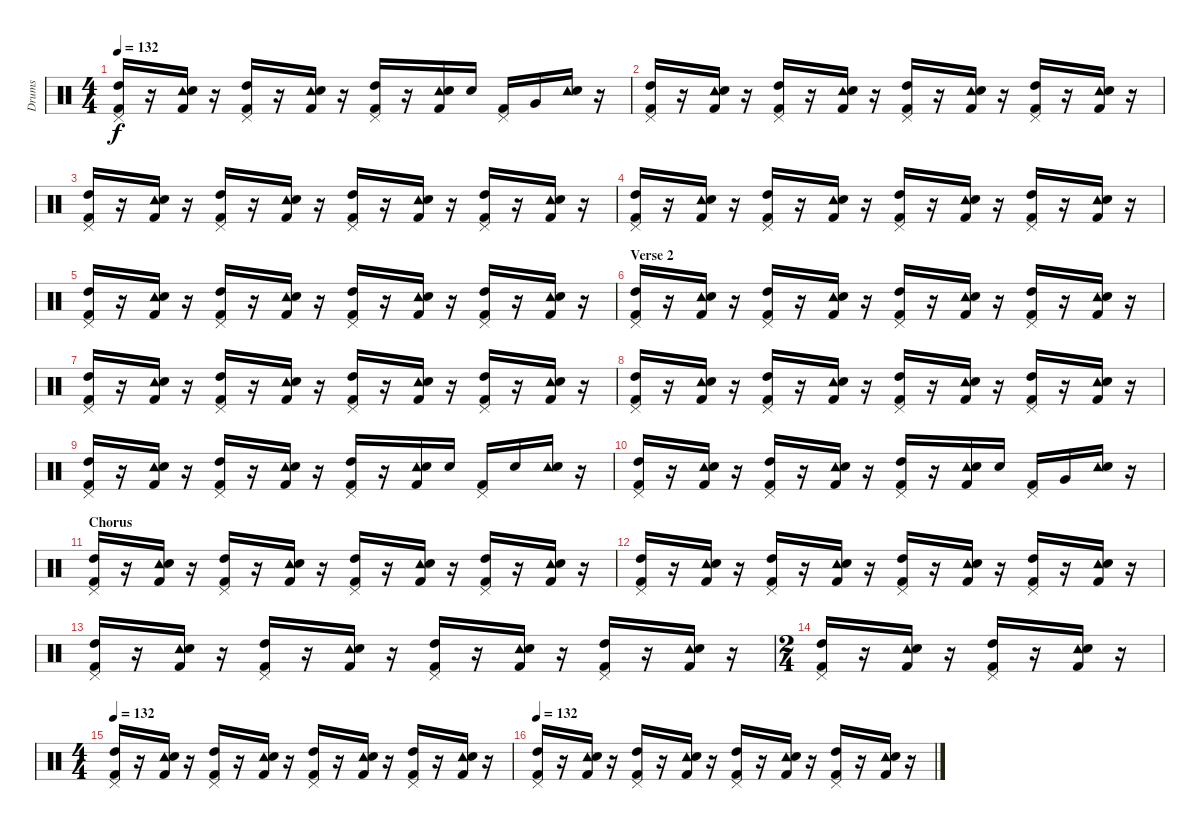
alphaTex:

\track ("Drums" "Drums") {instrument percussion}
\staff {score}
\articulation defaults
\ts (4 4)
\tempo 132
\clef neutral
\ks c
("Pedal Hi-Hat (hit)" "Kick (hit) 2" "High Tom (hit)").16{dy f} r.16 ("Tambourine (hit)" "Kick (hit) 2" "Snare (hit) 2").16 r.16 ("Pedal Hi-Hat (hit)" "Kick (hit) 2" "High Tom (hit)").16 r.16 ("Tambourine (hit)" "Kick (hit) 2" "Snare (hit) 2").16 r.16 ("Pedal Hi-Hat (hit)" "Kick (hit) 2" "High Tom (hit)").16 r.16 ("Tambourine (hit)" "Kick (hit) 2" "Snare (hit) 2").16 "Snare (hit) 2".16 ("Pedal Hi-Hat (hit)" "Kick (hit) 2").16 "Very Low Tom (hit)".16 ("Tambourine (hit)" "Snare (hit) 2").16 r.16 |
("Pedal Hi-Hat (hit)" "Kick (hit) 2" "High Tom (hit)").16 r.16 ("Tambourine (hit)" "Kick (hit) 2" "Snare (hit) 2").16 r.16 ("Pedal Hi-Hat (hit)" "Kick (hit) 2" "High Tom (hit)").16 r.16 ("Tambourine (hit)" "Kick (hit) 2" "Snare (hit) 2").16 r.16 ("Pedal Hi-Hat (hit)" "Kick (hit) 2" "High Tom (hit)").16 r.16 ("Tambourine (hit)" "Kick (hit) 2" "Snare (hit) 2").16 r.16 ("Pedal Hi-Hat (hit)" "Kick (hit) 2" "High Tom (hit)").16 r.16 ("Tambourine (hit)" "Kick (hit) 2" "Snare (hit) 2").16 r.16 |
("Pedal Hi-Hat (hit)" "Kick (hit) 2" "High Tom (hit)").16 r.16 ("Tambourine (hit)" "Kick (hit) 2" "Snare (hit) 2").16 r.16 ("Pedal Hi-Hat (hit)" "Kick (hit) 2" "High Tom (hit)").16 r.16 ("Tambourine (hit)" "Kick (hit) 2" "Snare (hit) 2").16 r.16 ("Pedal Hi-Hat (hit)" "Kick (hit) 2" "High Tom (hit)").16 r.16 ("Tambourine (hit)" "Kick (hit) 2" "Snare (hit) 2").16 r.16 ("Pedal Hi-Hat (hit)" "Kick (hit) 2" "High Tom (hit)").16 r.16 ("Tambourine (hit)" "Kick (hit) 2" "Snare (hit) 2").16 r.16 |
("Pedal Hi-Hat (hit)" "Kick (hit) 2" "High Tom (hit)").16 r.16 ("Tambourine (hit)" "Kick (hit) 2" "Snare (hit) 2").16 r.16 ("Pedal Hi-Hat (hit)" "Kick (hit) 2" "High Tom (hit)").16 r.16 ("Tambourine (hit)" "Kick (hit) 2" "Snare (hit) 2").16 r.16 ("Pedal Hi-Hat (hit)" "Kick (hit) 2" "High Tom (hit)").16 r.16 ("Tambourine (hit)" "Kick (hit) 2" "Snare (hit) 2").16 r.16 ("Pedal Hi-Hat (hit)" "Kick (hit) 2" "High Tom (hit)").16 r.16 ("Tambourine (hit)" "Kick (hit) 2" "Snare (hit) 2").16 r.16 |
("Pedal Hi-Hat (hit)" "Kick (hit) 2" "High Tom (hit)").16 r.16 ("Tambourine (hit)" "Kick (hit) 2" "Snare (hit) 2").16 r.16 ("Pedal Hi-Hat (hit)" "Kick (hit) 2" "High Tom (hit)").16 r.16 ("Tambourine (hit)" "Kick (hit) 2" "Snare (hit) 2").16 r.16 ("Pedal Hi-Hat (hit)" "Kick (hit) 2" "High Tom (hit)").16 r.16 ("Tambourine (hit)" "Kick (hit) 2" "Snare (hit) 2").16 r.16 ("Pedal Hi-Hat (hit)" "Kick (hit) 2" "High Tom (hit)").16 r.16 ("Tambourine (hit)" "Kick (hit) 2" "Snare (hit) 2").16 r.16 |
\section ("" "Verse 2")
("Pedal Hi-Hat (hit)" "Kick (hit) 2" "High Tom (hit)").16 r.16 ("Tambourine (hit)" "Kick (hit) 2" "Snare (hit) 2").16 r.16 ("Pedal Hi-Hat (hit)" "Kick (hit) 2" "High Tom (hit)").16 r.16 ("Tambourine (hit)" "Kick (hit) 2" "Snare (hit) 2").16 r.16 ("Pedal Hi-Hat (hit)" "Kick (hit) 2" "High Tom (hit)").16 r.16 ("Tambourine (hit)" "Kick (hit) 2" "Snare (hit) 2").16 r.16 ("Pedal Hi-Hat (hit)" "Kick (hit) 2" "High Tom (hit)").16 r.16 ("Tambourine (hit)" "Kick (hit) 2" "Snare (hit) 2").16 r.16 |
("Pedal Hi-Hat (hit)" "Kick (hit) 2" "High Tom (hit)").16 r.16 ("Tambourine (hit)" "Kick (hit) 2" "Snare (hit) 2").16 r.16 ("Pedal Hi-Hat (hit)" "Kick (hit) 2" "High Tom (hit)").16 r.16 ("Tambourine (hit)" "Kick (hit) 2" "Snare (hit) 2").16 r.16 ("Pedal Hi-Hat (hit)" "Kick (hit) 2" "High Tom (hit)").16 r.16 ("Tambourine (hit)" "Kick (hit) 2" "Snare (hit) 2").16 r.16 ("Pedal Hi-Hat (hit)" "Kick (hit) 2" "High Tom (hit)").16 r.16 ("Tambourine (hit)" "Kick (hit) 2" "Snare (hit) 2").16 r.16 |
("Pedal Hi-Hat (hit)" "Kick (hit) 2" "High Tom (hit)").16 r.16 ("Tambourine (hit)" "Kick (hit) 2" "Snare (hit) 2").16 r.16 ("Pedal Hi-Hat (hit)" "Kick (hit) 2" "High Tom (hit)").16 r.16 ("Tambourine (hit)" "Kick (hit) 2" "Snare (hit) 2").16 r.16 ("Pedal Hi-Hat (hit)" "Kick (hit) 2" "High Tom (hit)").16 r.16 ("Tambourine (hit)" "Kick (hit) 2" "Snare (hit) 2").16 r.16 ("Pedal Hi-Hat (hit)" "Kick (hit) 2" "High Tom (hit)").16 r.16 ("Tambourine (hit)" "Kick (hit) 2" "Snare (hit) 2").16 r.16 |
("Pedal Hi-Hat (hit)" "Kick (hit) 2" "High Tom (hit)").16 r.16 ("Tambourine (hit)" "Kick (hit) 2" "Snare (hit) 2").16 r.16 ("Pedal Hi-Hat (hit)" "Kick (hit) 2" "High Tom (hit)").16 r.16 ("Tambourine (hit)" "Kick (hit) 2" "Snare (hit) 2").16 r.16 ("Pedal Hi-Hat (hit)" "Kick (hit) 2" "High Tom (hit)").16 r.16 ("Tambourine (hit)" "Kick (hit) 2" "Snare (hit) 2").16 "Snare (hit) 2".16 ("Pedal Hi-Hat (hit)" "Kick (hit) 2").16 "Snare (hit) 2".16 ("Tambourine (hit)" "Snare (hit) 2").16 r.16 |
("Pedal Hi-Hat (hit)" "Kick (hit) 2" "High Tom (hit)").16 r.16 ("Tambourine (hit)" "Kick (hit) 2" "Snare (hit) 2").16 r.16 ("Pedal Hi-Hat (hit)" "Kick (hit) 2" "High Tom (hit)").16 r.16 ("Tambourine (hit)" "Kick (hit) 2" "Snare (hit) 2").16 r.16 ("Pedal Hi-Hat (hit)" "Kick (hit) 2" "High Tom (hit)").16 r.16 ("Tambourine (hit)" "Kick (hit) 2" "Snare (hit) 2").16 "Snare (hit) 2".16 ("Pedal Hi-Hat (hit)" "Kick (hit) 2").16 "Very Low Tom (hit)".16 ("Tambourine (hit)" "Snare (hit) 2").16 r.16 |
\section ("" "Chorus")
("Pedal Hi-Hat (hit)" "Kick (hit) 2" "High Tom (hit)").16 r.16 ("Tambourine (hit)" "Kick (hit) 2" "Snare (hit) 2").16 r.16 ("Pedal Hi-Hat (hit)" "Kick (hit) 2" "High Tom (hit)").16 r.16 ("Tambourine (hit)" "Kick (hit) 2" "Snare (hit) 2").16 r.16 ("Pedal Hi-Hat (hit)" "Kick (hit) 2" "High Tom (hit)").16 r.16 ("Tambourine (hit)" "Kick (hit) 2" "Snare (hit) 2").16 r.16 ("Pedal Hi-Hat (hit)" "Kick (hit) 2" "High Tom (hit)").16 r.16 ("Tambourine (hit)" "Kick (hit) 2" "Snare (hit) 2").16 r.16 |
("Pedal Hi-Hat (hit)" "Kick (hit) 2" "High Tom (hit)").16 r.16 ("Tambourine (hit)" "Kick (hit) 2" "Snare (hit) 2").16 r.16 ("Pedal Hi-Hat (hit)" "Kick (hit) 2" "High Tom (hit)").16 r.16 ("Tambourine (hit)" "Kick (hit) 2" "Snare (hit) 2").16 r.16 ("Pedal Hi-Hat (hit)" "Kick (hit) 2" "High Tom (hit)").16 r.16 ("Tambourine (hit)" "Kick (hit) 2" "Snare (hit) 2").16 r.16 ("Pedal Hi-Hat (hit)" "Kick (hit) 2" "High Tom (hit)").16 r.16 ("Tambourine (hit)" "Kick (hit) 2" "Snare (hit) 2").16 r.16 |
("Pedal Hi-Hat (hit)" "Kick (hit) 2" "High Tom (hit)").16 r.16 ("Tambourine (hit)" "Kick (hit) 2" "Snare (hit) 2").16 r.16 ("Pedal Hi-Hat (hit)" "Kick (hit) 2" "High Tom (hit)").16 r.16 ("Tambourine (hit)" "Kick (hit) 2" "Snare (hit) 2").16 r.16 ("Pedal Hi-Hat (hit)" "Kick (hit) 2" "High Tom (hit)").16 r.16 ("Tambourine (hit)" "Kick (hit) 2" "Snare (hit) 2").16 r.16 ("Pedal Hi-Hat (hit)" "Kick (hit) 2" "High Tom (hit)").16 r.16 ("Tambourine (hit)" "Kick (hit) 2" "Snare (hit) 2").16 r.16 |
\ts (2 4)
("Pedal Hi-Hat (hit)" "Kick (hit) 2" "High Tom (hit)").16 r.16 ("Tambourine (hit)" "Kick (hit) 2" "Snare (hit) 2").16 r.16 ("Pedal Hi-Hat (hit)" "Kick (hit) 2" "High Tom (hit)").16 r.16 ("Tambourine (hit)" "Kick (hit) 2" "Snare (hit) 2").16 r.16 |
\ts (4 4)
\tempo 132
("Pedal Hi-Hat (hit)" "Kick (hit) 2" "High Tom (hit)").16 r.16 ("Tambourine (hit)" "Kick (hit) 2" "Snare (hit) 2").16 r.16 ("Pedal Hi-Hat (hit)" "Kick (hit) 2" "High Tom (hit)").16 r.16 ("Tambourine (hit)" "Kick (hit) 2" "Snare (hit) 2").16 r.16 ("Pedal Hi-Hat (hit)" "Kick (hit) 2" "High Tom (hit)").16 r.16 ("Tambourine (hit)" "Kick (hit) 2" "Snare (hit) 2").16 r.16 ("Pedal Hi-Hat (hit)" "Kick (hit) 2" "High Tom (hit)").16 r.16 ("Tambourine (hit)" "Kick (hit) 2" "Snare (hit) 2").16 r.16 |
\tempo 132
("Pedal Hi-Hat (hit)" "Kick (hit) 2" "High Tom (hit)").16 r.16 ("Tambourine (hit)" "Kick (hit) 2" "Snare (hit) 2").16 r.16 ("Pedal Hi-Hat (hit)" "Kick (hit) 2" "High Tom (hit)").16 r.16 ("Tambourine (hit)" "Kick (hit) 2" "Snare (hit) 2").16 r.16 ("Pedal Hi-Hat (hit)" "Kick (hit) 2" "High Tom (hit)").16 r.16 ("Tambourine (hit)" "Kick (hit) 2" "Snare (hit) 2").16 r.16 ("Pedal Hi-Hat (hit)" "Kick (hit) 2" "High Tom (hit)").16 r.16 ("Tambourine (hit)" "Kick (hit) 2" "Snare (hit) 2").16 r.16
